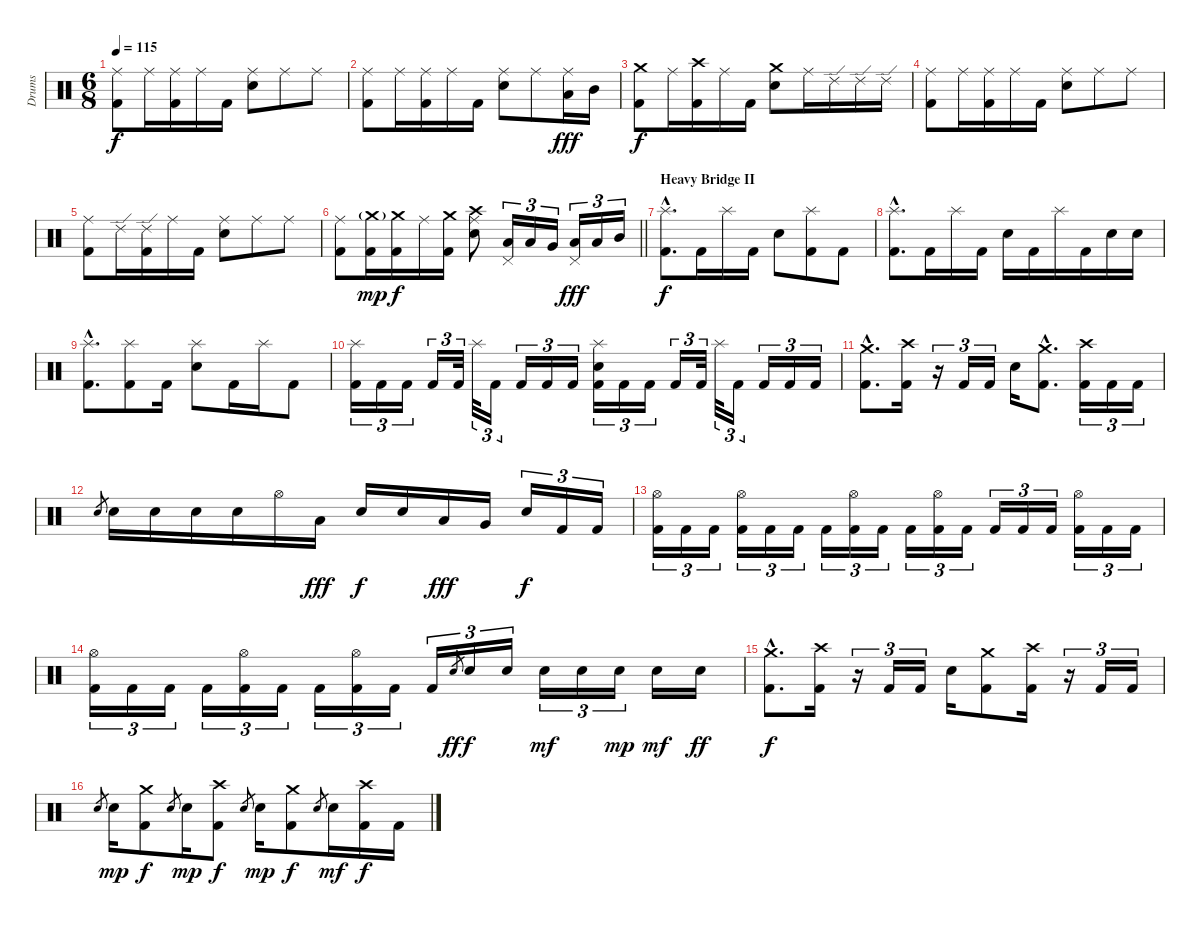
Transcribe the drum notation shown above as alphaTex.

\track ("Drums" "Drums") {instrument percussion}
\staff {score}
\articulation defaults
\ts (6 8)
\tempo 115
\clef neutral
\ks c
("Ride (middle)" "Kick (hit) 2").8{dy f} "Ride (middle)".16 ("Ride (middle)" "Kick (hit) 2").16 "Ride (middle)".16 "Kick (hit) 2".16 ("Ride (middle)" "Electric Snare (hit)").8 "Ride (middle)".8 "Ride (middle)".8 |
("Ride (middle)" "Kick (hit) 2").8 "Ride (middle)".16 ("Ride (middle)" "Kick (hit) 2").16 "Ride (middle)".16 "Kick (hit) 2".16 ("Ride (middle)" "Electric Snare (hit)").8 "Ride (middle)".8 ("Ride (middle)" "Low Tom (hit)").16{dy fff} "Mid Tom (hit)".16 |
("Crash medium (hit)" "Kick (hit) 2").8{dy f} "Ride (middle)".16 ("Crash high (hit)" "Kick (hit) 2").16 "Ride (middle)".16 "Kick (hit) 2".16 ("Crash medium (hit)" "Electric Snare (hit)").8 "Ride (middle)".16 "Ride (edge) 2".16 "Ride (edge) 2".16 "Ride (edge) 2".16 |
("Ride (middle)" "Kick (hit) 2").8 "Ride (middle)".16 ("Ride (middle)" "Kick (hit) 2").16 "Ride (middle)".16 "Kick (hit) 2".16 ("Ride (middle)" "Electric Snare (hit)").8 "Ride (middle)".8 "Ride (middle)".8 |
("Ride (middle)" "Kick (hit) 2").8 "Ride (edge) 2".16 ("Ride (edge) 2" "Kick (hit) 2").16 "Ride (middle)".16 "Kick (hit) 2".16 ("Ride (middle)" "Electric Snare (hit)").8 "Ride (middle)".8 "Ride (middle)".8 |
\barLineRight lightlight
("Ride (middle)" "Kick (hit) 2").8 ("Crash medium (hit)"{g} "Kick (hit) 2").16{dy mp} ("Crash medium (hit)" "Kick (hit) 2").16{dy f} "Ride (middle)".16 ("Crash medium (hit)" "Kick (hit) 2").16 ("Crash high (hit)" "Ride (middle)" "Electric Snare (hit)").8 ("Pedal Hi-Hat (hit)" "Low Tom (hit)").16{tu (3 2)} "Low Tom (hit)".16{tu (3 2)} "Very Low Tom (hit)".16{tu (3 2)} ("Pedal Hi-Hat (hit)" "Low Tom (hit)").16{tu (3 2) dy fff} "Low Tom (hit)".16{tu (3 2)} "Mid Tom (hit)".16{tu (3 2)} |
\section ("" "Heavy Bridge II")
("Splash (hit)"{hac} "Kick (hit) 2"{hac}).8{d dy f} "Kick (hit) 2".16 "Splash (hit)".16 "Kick (hit) 2".16 "Electric Snare (hit)".8 ("Splash (hit)" "Kick (hit) 2").8 "Kick (hit) 2".8 |
("Splash (hit)"{hac} "Kick (hit) 2"{hac}).8{d} "Kick (hit) 2".16 "Splash (hit)".16 "Kick (hit) 2".16 "Electric Snare (hit)".16 "Kick (hit) 2".16 "Splash (hit)".16 "Kick (hit) 2".16 "Electric Snare (hit)".16 "Electric Snare (hit)".16 |
("Splash (hit)"{hac} "Kick (hit) 2"{hac}).8{d} ("Splash (hit)" "Kick (hit) 2").8 "Kick (hit) 2".16 ("Splash (hit)" "Electric Snare (hit)").8 "Kick (hit) 2".16 "Splash (hit)".16 "Kick (hit) 2".8 |
("Splash (hit)" "Kick (hit) 2").16{tu (3 2)} "Kick (hit) 2".16{tu (3 2)} "Kick (hit) 2".16{tu (3 2)} "Kick (hit) 2".16{tu (3 2)} "Kick (hit) 2".32{tu (3 2)} "Splash (hit)".32{tu (3 2)} "Kick (hit) 2".16{tu (3 2)} "Kick (hit) 2".16{tu (3 2)} "Kick (hit) 2".16{tu (3 2)} "Kick (hit) 2".16{tu (3 2)} ("Splash (hit)" "Electric Snare (hit)" "Kick (hit) 2").16{tu (3 2)} "Kick (hit) 2".16{tu (3 2)} "Kick (hit) 2".16{tu (3 2)} "Kick (hit) 2".16{tu (3 2)} "Kick (hit) 2".32{tu (3 2)} "Splash (hit)".32{tu (3 2)} "Kick (hit) 2".16{tu (3 2)} "Kick (hit) 2".16{tu (3 2)} "Kick (hit) 2".16{tu (3 2)} "Kick (hit) 2".16{tu (3 2)} |
("Crash medium (hit)"{hac} "Kick (hit) 2"{hac}).8{d} ("Crash high (hit)" "Kick (hit) 2").16 r.16{tu (3 2)} "Kick (hit) 2".16{tu (3 2)} "Kick (hit) 2".16{tu (3 2)} "Electric Snare (hit)".16 ("Crash medium (hit)"{hac} "Kick (hit) 2"{hac}).8{d} ("Crash high (hit)" "Kick (hit) 2").16{tu (3 2)} "Kick (hit) 2".16{tu (3 2)} "Kick (hit) 2".16{tu (3 2)} |
"Electric Snare (hit)".8{gr} "Electric Snare (hit)".16 "Electric Snare (hit)".16 "Electric Snare (hit)".16 "Electric Snare (hit)".16 "Hi-Hat (open)".16 "Low Tom (hit)".16{dy fff} "Electric Snare (hit)".16{dy f} "Electric Snare (hit)".16 "Low Tom (hit)".16{dy fff} "Very Low Tom (hit)".16 "Electric Snare (hit)".16{tu (3 2) dy f} "Kick (hit) 2".16{tu (3 2)} "Kick (hit) 2".16{tu (3 2)} |
("Hi-Hat (open)" "Kick (hit) 2").16{tu (3 2)} "Kick (hit) 2".16{tu (3 2)} "Kick (hit) 2".16{tu (3 2)} ("Hi-Hat (open)" "Kick (hit) 2").16{tu (3 2)} "Kick (hit) 2".16{tu (3 2)} "Kick (hit) 2".16{tu (3 2)} "Kick (hit) 2".16{tu (3 2)} ("Hi-Hat (open)" "Kick (hit) 2").16{tu (3 2)} "Kick (hit) 2".16{tu (3 2)} "Kick (hit) 2".16{tu (3 2)} ("Hi-Hat (open)" "Kick (hit) 2").16{tu (3 2)} "Kick (hit) 2".16{tu (3 2)} "Kick (hit) 2".16{tu (3 2)} "Kick (hit) 2".16{tu (3 2)} "Kick (hit) 2".16{tu (3 2)} ("Hi-Hat (open)" "Kick (hit) 2").16{tu (3 2)} "Kick (hit) 2".16{tu (3 2)} "Kick (hit) 2".16{tu (3 2)} |
("Hi-Hat (open)" "Kick (hit) 2").16{tu (3 2)} "Kick (hit) 2".16{tu (3 2)} "Kick (hit) 2".16{tu (3 2)} "Kick (hit) 2".16{tu (3 2)} ("Hi-Hat (open)" "Kick (hit) 2").16{tu (3 2)} "Kick (hit) 2".16{tu (3 2)} "Kick (hit) 2".16{tu (3 2)} ("Hi-Hat (open)" "Kick (hit) 2").16{tu (3 2)} "Kick (hit) 2".16{tu (3 2)} "Kick (hit) 2".16{tu (3 2)} "Electric Snare (hit)".8{gr dy ff} "Electric Snare (hit)".16{tu (3 2) dy f} "Electric Snare (hit)".16{tu (3 2)} "Electric Snare (hit)".16{tu (3 2) dy mf} "Electric Snare (hit)".16{tu (3 2)} "Electric Snare (hit)".16{tu (3 2) dy mp} "Electric Snare (hit)".16{dy mf} "Electric Snare (hit)".16{dy ff} |
("Crash medium (hit)"{hac} "Kick (hit) 2"{hac}).8{d dy f} ("Crash high (hit)" "Kick (hit) 2").16 r.16{tu (3 2)} "Kick (hit) 2".16{tu (3 2)} "Kick (hit) 2".16{tu (3 2)} "Electric Snare (hit)".16 ("Crash medium (hit)" "Kick (hit) 2").8 ("Crash high (hit)" "Kick (hit) 2").16 r.16{tu (3 2)} "Kick (hit) 2".16{tu (3 2)} "Kick (hit) 2".16{tu (3 2)} |
"Electric Snare (hit)".8{gr} "Electric Snare (hit)".16{dy mp} ("Crash medium (hit)" "Kick (hit) 2").8{dy f} "Electric Snare (hit)".8{gr} "Electric Snare (hit)".16{dy mp} ("Crash high (hit)" "Kick (hit) 2").8{dy f} "Electric Snare (hit)".8{gr} "Electric Snare (hit)".16{dy mp} ("Crash medium (hit)" "Kick (hit) 2").8{dy f} "Electric Snare (hit)".8{gr} "Electric Snare (hit)".16{dy mf} ("Crash high (hit)" "Kick (hit) 2").16{dy f} "Kick (hit) 2".16
